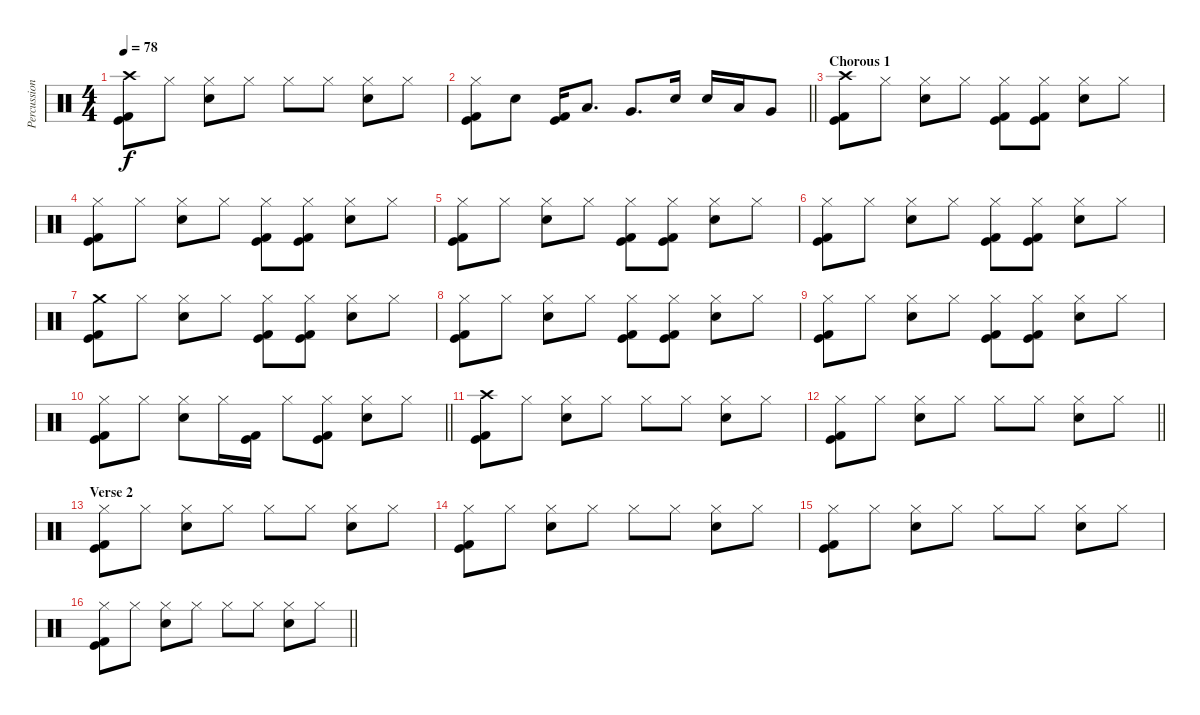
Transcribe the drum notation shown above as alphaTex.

\track ("Percussion" "Percussion") {instrument percussion}
\staff {score}
\articulation defaults
\ts (4 4)
\section ("" "")
\tempo 78
\clef neutral
\ks c
("Crash high (hit)" "Kick (hit)" "Kick (hit) 2").8{dy f} "Hi-Hat (closed)".8 ("Hi-Hat (closed)" "Electric Snare (hit)").8 "Hi-Hat (closed)".8 "Hi-Hat (closed)".8 "Hi-Hat (closed)".8 ("Hi-Hat (closed)" "Electric Snare (hit)").8 "Hi-Hat (closed)".8 |
\barLineRight lightlight
("Hi-Hat (closed)" "Kick (hit)" "Kick (hit) 2").8 "Electric Snare (hit)".8 ("Kick (hit)" "Kick (hit) 2").16 "Low Tom (hit)".8{d} "Very Low Tom (hit)".8{d} "Electric Snare (hit)".16 "Electric Snare (hit)".16 "Low Tom (hit)".16 "Very Low Tom (hit)".8 |
\section ("" "Chorous 1")
("Crash high (hit)" "Kick (hit)" "Kick (hit) 2").8 "Hi-Hat (closed)".8 ("Hi-Hat (closed)" "Electric Snare (hit)").8 "Hi-Hat (closed)".8 ("Hi-Hat (closed)" "Kick (hit)" "Kick (hit) 2").8 ("Hi-Hat (closed)" "Kick (hit)" "Kick (hit) 2").8 ("Hi-Hat (closed)" "Electric Snare (hit)").8 "Hi-Hat (closed)".8 |
("Hi-Hat (closed)" "Kick (hit)" "Kick (hit) 2").8 "Hi-Hat (closed)".8 ("Hi-Hat (closed)" "Electric Snare (hit)").8 "Hi-Hat (closed)".8 ("Hi-Hat (closed)" "Kick (hit)" "Kick (hit) 2").8 ("Hi-Hat (closed)" "Kick (hit)" "Kick (hit) 2").8 ("Hi-Hat (closed)" "Electric Snare (hit)").8 "Hi-Hat (closed)".8 |
("Hi-Hat (closed)" "Kick (hit)" "Kick (hit) 2").8 "Hi-Hat (closed)".8 ("Hi-Hat (closed)" "Electric Snare (hit)").8 "Hi-Hat (closed)".8 ("Hi-Hat (closed)" "Kick (hit)" "Kick (hit) 2").8 ("Hi-Hat (closed)" "Kick (hit)" "Kick (hit) 2").8 ("Hi-Hat (closed)" "Electric Snare (hit)").8 "Hi-Hat (closed)".8 |
("Hi-Hat (closed)" "Kick (hit)" "Kick (hit) 2").8 "Hi-Hat (closed)".8 ("Hi-Hat (closed)" "Electric Snare (hit)").8 "Hi-Hat (closed)".8 ("Hi-Hat (closed)" "Kick (hit)" "Kick (hit) 2").8 ("Hi-Hat (closed)" "Kick (hit)" "Kick (hit) 2").8 ("Hi-Hat (closed)" "Electric Snare (hit)").8 "Hi-Hat (closed)".8 |
("Crash medium (hit)" "Kick (hit)" "Kick (hit) 2").8 "Hi-Hat (closed)".8 ("Hi-Hat (closed)" "Electric Snare (hit)").8 "Hi-Hat (closed)".8 ("Hi-Hat (closed)" "Kick (hit)" "Kick (hit) 2").8 ("Hi-Hat (closed)" "Kick (hit)" "Kick (hit) 2").8 ("Hi-Hat (closed)" "Electric Snare (hit)").8 "Hi-Hat (closed)".8 |
("Hi-Hat (closed)" "Kick (hit)" "Kick (hit) 2").8 "Hi-Hat (closed)".8 ("Hi-Hat (closed)" "Electric Snare (hit)").8 "Hi-Hat (closed)".8 ("Hi-Hat (closed)" "Kick (hit)" "Kick (hit) 2").8 ("Hi-Hat (closed)" "Kick (hit)" "Kick (hit) 2").8 ("Hi-Hat (closed)" "Electric Snare (hit)").8 "Hi-Hat (closed)".8 |
("Hi-Hat (closed)" "Kick (hit)" "Kick (hit) 2").8 "Hi-Hat (closed)".8 ("Hi-Hat (closed)" "Electric Snare (hit)").8 "Hi-Hat (closed)".8 ("Hi-Hat (closed)" "Kick (hit)" "Kick (hit) 2").8 ("Hi-Hat (closed)" "Kick (hit)" "Kick (hit) 2").8 ("Hi-Hat (closed)" "Electric Snare (hit)").8 "Hi-Hat (closed)".8 |
\barLineRight lightlight
("Hi-Hat (closed)" "Kick (hit)" "Kick (hit) 2").8 "Hi-Hat (closed)".8 ("Hi-Hat (closed)" "Electric Snare (hit)").8 "Hi-Hat (closed)".16 ("Kick (hit)" "Kick (hit) 2").16 "Hi-Hat (closed)".8 ("Hi-Hat (closed)" "Kick (hit)" "Kick (hit) 2").8 ("Hi-Hat (closed)" "Electric Snare (hit)").8 "Hi-Hat (closed)".8 |
\section ("" "")
("Crash high (hit)" "Kick (hit)" "Kick (hit) 2").8 "Hi-Hat (closed)".8 ("Hi-Hat (closed)" "Electric Snare (hit)").8 "Hi-Hat (closed)".8 "Hi-Hat (closed)".8 "Hi-Hat (closed)".8 ("Hi-Hat (closed)" "Electric Snare (hit)").8 "Hi-Hat (closed)".8 |
\barLineRight lightlight
("Hi-Hat (closed)" "Kick (hit)" "Kick (hit) 2").8 "Hi-Hat (closed)".8 ("Hi-Hat (closed)" "Electric Snare (hit)").8 "Hi-Hat (closed)".8 "Hi-Hat (closed)".8 "Hi-Hat (closed)".8 ("Hi-Hat (closed)" "Electric Snare (hit)").8 "Hi-Hat (closed)".8 |
\section ("" "Verse 2")
("Hi-Hat (closed)" "Kick (hit)" "Kick (hit) 2").8 "Hi-Hat (closed)".8 ("Hi-Hat (closed)" "Electric Snare (hit)").8 "Hi-Hat (closed)".8 "Hi-Hat (closed)".8 "Hi-Hat (closed)".8 ("Hi-Hat (closed)" "Electric Snare (hit)").8 "Hi-Hat (closed)".8 |
("Hi-Hat (closed)" "Kick (hit)" "Kick (hit) 2").8 "Hi-Hat (closed)".8 ("Hi-Hat (closed)" "Electric Snare (hit)").8 "Hi-Hat (closed)".8 "Hi-Hat (closed)".8 "Hi-Hat (closed)".8 ("Hi-Hat (closed)" "Electric Snare (hit)").8 "Hi-Hat (closed)".8 |
("Hi-Hat (closed)" "Kick (hit)" "Kick (hit) 2").8 "Hi-Hat (closed)".8 ("Hi-Hat (closed)" "Electric Snare (hit)").8 "Hi-Hat (closed)".8 "Hi-Hat (closed)".8 "Hi-Hat (closed)".8 ("Hi-Hat (closed)" "Electric Snare (hit)").8 "Hi-Hat (closed)".8 |
\barLineRight lightlight
("Hi-Hat (closed)" "Kick (hit)" "Kick (hit) 2").8 "Hi-Hat (closed)".8 ("Hi-Hat (closed)" "Electric Snare (hit)").8 "Hi-Hat (closed)".8 "Hi-Hat (closed)".8 "Hi-Hat (closed)".8 ("Hi-Hat (closed)" "Electric Snare (hit)").8 "Hi-Hat (closed)".8
